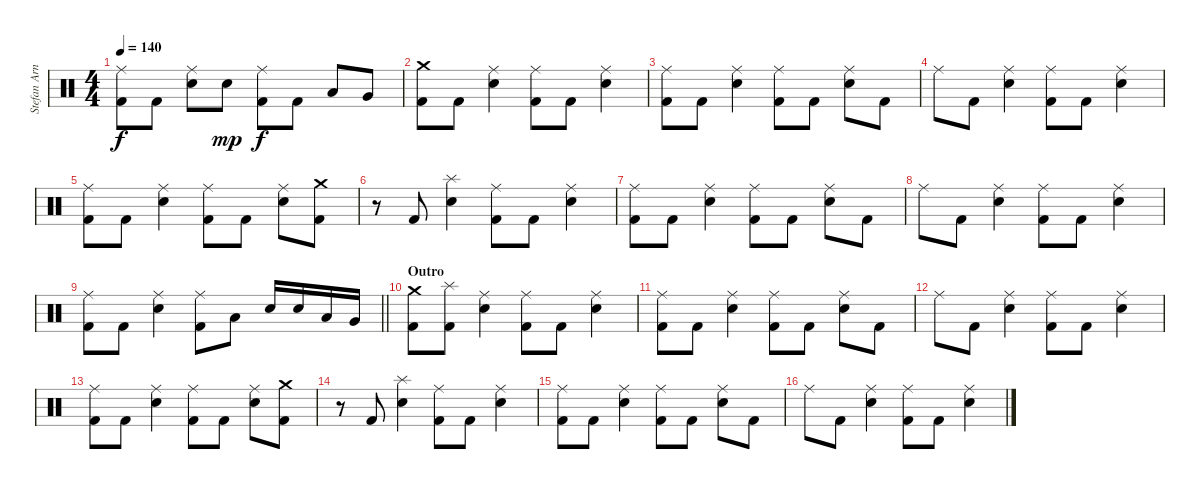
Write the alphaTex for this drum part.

\track ("Stefan Arnold" "Stefan Arn") {instrument percussion}
\staff {score}
\articulation defaults
\ts (4 4)
\tempo 140
\clef neutral
\ks c
("Ride (middle)" "Kick (hit) 2").8{dy f} "Kick (hit) 2".8 ("Ride (middle)" "Electric Snare (hit)").8 "Electric Snare (hit)".8{dy mp} ("Ride (middle)" "Kick (hit) 2").8{dy f} "Kick (hit) 2".8 "Low Tom (hit)".8 "Very Low Tom (hit)".8 |
("Crash medium (hit)" "Kick (hit) 2").8 "Kick (hit) 2".8 ("Ride (middle)" "Electric Snare (hit)").4 ("Ride (middle)" "Kick (hit) 2").8 "Kick (hit) 2".8 ("Ride (middle)" "Electric Snare (hit)").4 |
("Ride (middle)" "Kick (hit) 2").8 "Kick (hit) 2".8 ("Ride (middle)" "Electric Snare (hit)").4 ("Ride (middle)" "Kick (hit) 2").8 "Kick (hit) 2".8 ("Ride (middle)" "Electric Snare (hit)").8 "Kick (hit) 2".8 |
"Ride (middle)".8 "Kick (hit) 2".8 ("Ride (middle)" "Electric Snare (hit)").4 ("Ride (middle)" "Kick (hit) 2").8 "Kick (hit) 2".8 ("Ride (middle)" "Electric Snare (hit)").4 |
("Ride (middle)" "Kick (hit) 2").8 "Kick (hit) 2".8 ("Ride (middle)" "Electric Snare (hit)").4 ("Ride (middle)" "Kick (hit) 2").8 "Kick (hit) 2".8 ("Ride (middle)" "Electric Snare (hit)").8 ("Crash medium (hit)" "Kick (hit) 2").8 |
r.8 "Kick (hit) 2".8 ("Splash (hit)" "Electric Snare (hit)").4 ("Ride (middle)" "Kick (hit) 2").8 "Kick (hit) 2".8 ("Ride (middle)" "Electric Snare (hit)").4 |
("Ride (middle)" "Kick (hit) 2").8 "Kick (hit) 2".8 ("Ride (middle)" "Electric Snare (hit)").4 ("Ride (middle)" "Kick (hit) 2").8 "Kick (hit) 2".8 ("Ride (middle)" "Electric Snare (hit)").8 "Kick (hit) 2".8 |
"Ride (middle)".8 "Kick (hit) 2".8 ("Ride (middle)" "Electric Snare (hit)").4 ("Ride (middle)" "Kick (hit) 2").8 "Kick (hit) 2".8 ("Ride (middle)" "Electric Snare (hit)").4 |
\barLineRight lightlight
("Ride (middle)" "Kick (hit) 2").8 "Kick (hit) 2".8 ("Ride (middle)" "Electric Snare (hit)").4 ("Ride (middle)" "Kick (hit) 2").8 "Low Tom (hit)".8 "Electric Snare (hit)".16 "Electric Snare (hit)".16 "Low Tom (hit)".16 "Very Low Tom (hit)".16 |
\section ("" "Outro")
("Crash medium (hit)" "Kick (hit) 2").8 ("Splash (hit)" "Kick (hit) 2").8 ("Ride (middle)" "Electric Snare (hit)").4 ("Ride (middle)" "Kick (hit) 2").8 "Kick (hit) 2".8 ("Ride (middle)" "Electric Snare (hit)").4 |
("Ride (middle)" "Kick (hit) 2").8 "Kick (hit) 2".8 ("Ride (middle)" "Electric Snare (hit)").4 ("Ride (middle)" "Kick (hit) 2").8 "Kick (hit) 2".8 ("Ride (middle)" "Electric Snare (hit)").8 "Kick (hit) 2".8 |
"Ride (middle)".8 "Kick (hit) 2".8 ("Ride (middle)" "Electric Snare (hit)").4 ("Ride (middle)" "Kick (hit) 2").8 "Kick (hit) 2".8 ("Ride (middle)" "Electric Snare (hit)").4 |
("Ride (middle)" "Kick (hit) 2").8 "Kick (hit) 2".8 ("Ride (middle)" "Electric Snare (hit)").4 ("Ride (middle)" "Kick (hit) 2").8 "Kick (hit) 2".8 ("Ride (middle)" "Electric Snare (hit)").8 ("Crash medium (hit)" "Kick (hit) 2").8 |
r.8 "Kick (hit) 2".8 ("Splash (hit)" "Electric Snare (hit)").4 ("Ride (middle)" "Kick (hit) 2").8 "Kick (hit) 2".8 ("Ride (middle)" "Electric Snare (hit)").4 |
("Ride (middle)" "Kick (hit) 2").8 "Kick (hit) 2".8 ("Ride (middle)" "Electric Snare (hit)").4 ("Ride (middle)" "Kick (hit) 2").8 "Kick (hit) 2".8 ("Ride (middle)" "Electric Snare (hit)").8 "Kick (hit) 2".8 |
"Ride (middle)".8 "Kick (hit) 2".8 ("Ride (middle)" "Electric Snare (hit)").4 ("Ride (middle)" "Kick (hit) 2").8 "Kick (hit) 2".8 ("Ride (middle)" "Electric Snare (hit)").4
